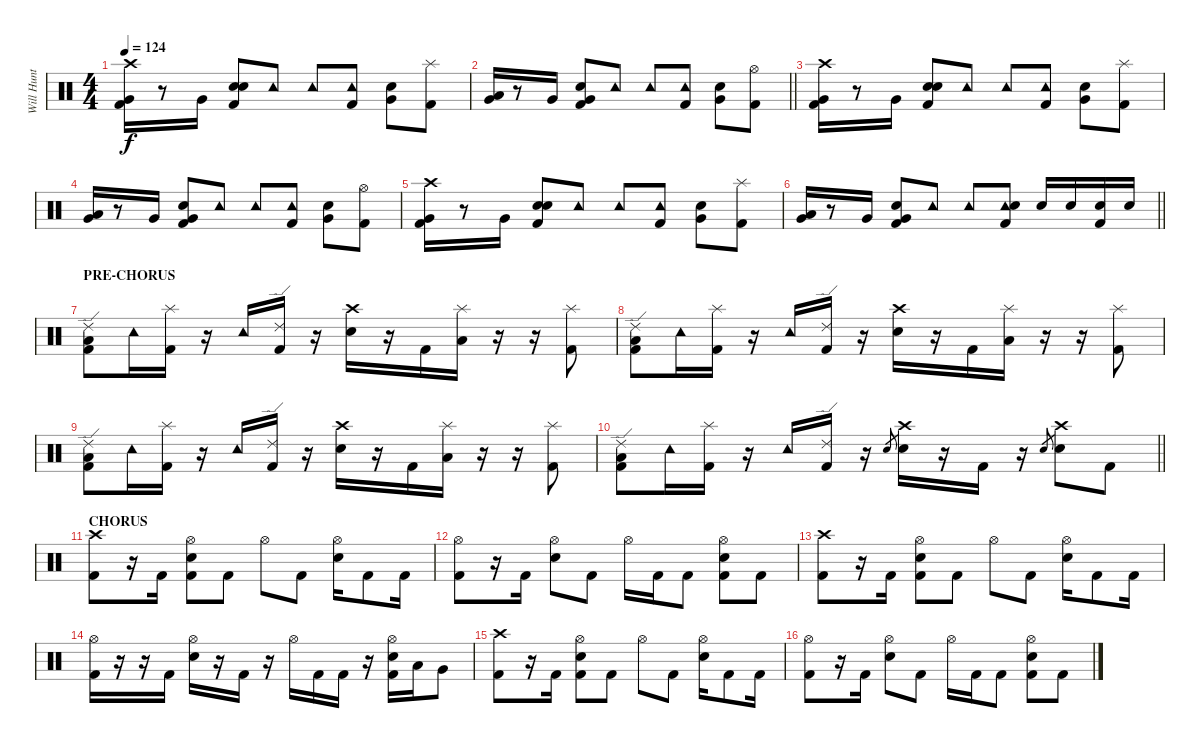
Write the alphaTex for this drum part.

\track ("Will Hunt - drums" "Will Hunt ") {instrument percussion}
\staff {score}
\articulation defaults
\ts (4 4)
\tempo 124
\clef neutral
\ks c
("Crash high (hit)" "Very Low Tom (hit)" "Kick (hit) 2").16{dy f} r.8 "Very Low Tom (hit)".16 ("Electric Snare (hit)" "Snare (hit) 2" "Kick (hit) 2").8 "Tambourine (hit)".8 "Tambourine (hit)".8 ("Tambourine (hit)" "Kick (hit) 2").8 ("Very Low Tom (hit)" "Snare (hit) 2").8 ("Splash (hit)" "Kick (hit) 2").8 |
\barLineRight lightlight
("Low Floor Tom (hit)" "Very Low Tom (hit)").16 r.8 "Very Low Tom (hit)".16 ("Very Low Tom (hit)" "Snare (hit) 2" "Kick (hit) 2").8 "Tambourine (hit)".8 "Tambourine (hit)".8 ("Tambourine (hit)" "Kick (hit) 2").8 ("Very Low Tom (hit)" "Snare (hit) 2").8 ("Hi-Hat (open)" "Kick (hit) 2").8 |
("Crash high (hit)" "Very Low Tom (hit)" "Kick (hit) 2").16 r.8 "Very Low Tom (hit)".16 ("Electric Snare (hit)" "Snare (hit) 2" "Kick (hit) 2").8 "Tambourine (hit)".8 "Tambourine (hit)".8 ("Tambourine (hit)" "Kick (hit) 2").8 ("Very Low Tom (hit)" "Snare (hit) 2").8 ("Splash (hit)" "Kick (hit) 2").8 |
("Low Floor Tom (hit)" "Very Low Tom (hit)").16 r.8 "Very Low Tom (hit)".16 ("Very Low Tom (hit)" "Snare (hit) 2" "Kick (hit) 2").8 "Tambourine (hit)".8 "Tambourine (hit)".8 ("Tambourine (hit)" "Kick (hit) 2").8 ("Very Low Tom (hit)" "Snare (hit) 2").8 ("Hi-Hat (open)" "Kick (hit) 2").8 |
("Crash high (hit)" "Very Low Tom (hit)" "Kick (hit) 2").16 r.8 "Very Low Tom (hit)".16 ("Electric Snare (hit)" "Snare (hit) 2" "Kick (hit) 2").8 "Tambourine (hit)".8 "Tambourine (hit)".8 ("Tambourine (hit)" "Kick (hit) 2").8 ("Very Low Tom (hit)" "Snare (hit) 2").8 ("Splash (hit)" "Kick (hit) 2").8 |
\barLineRight lightlight
("Low Floor Tom (hit)" "Very Low Tom (hit)").16 r.8 "Very Low Tom (hit)".16 ("Very Low Tom (hit)" "Snare (hit) 2" "Kick (hit) 2").8 "Tambourine (hit)".8 "Tambourine (hit)".8 ("Tambourine (hit)" "Snare (hit) 2" "Kick (hit) 2").8 "Snare (hit) 2".16 "Snare (hit) 2".16 ("Snare (hit) 2" "Kick (hit) 2").16 "Snare (hit) 2".16 |
\section ("" "PRE-CHORUS")
("Ride (edge) 2" "Low Tom (hit)" "Kick (hit) 2").8 "Tambourine (hit)".16 ("Splash (hit)" "Kick (hit) 2").16 r.16 "Tambourine (hit)".16 ("Ride (edge) 2" "Kick (hit) 2").16 r.16 ("Crash high (hit)" "Snare (hit) 2").16 r.16 "Kick (hit) 2".16 ("Splash (hit)" "Low Tom (hit)").16 r.16 r.16 ("Splash (hit)" "Kick (hit) 2").8 |
("Ride (edge) 2" "Low Tom (hit)" "Kick (hit) 2").8 "Tambourine (hit)".16 ("Splash (hit)" "Kick (hit) 2").16 r.16 "Tambourine (hit)".16 ("Ride (edge) 2" "Kick (hit) 2").16 r.16 ("Crash high (hit)" "Snare (hit) 2").16 r.16 "Kick (hit) 2".16 ("Splash (hit)" "Low Tom (hit)").16 r.16 r.16 ("Splash (hit)" "Kick (hit) 2").8 |
("Ride (edge) 2" "Low Tom (hit)" "Kick (hit) 2").8 "Tambourine (hit)".16 ("Splash (hit)" "Kick (hit) 2").16 r.16 "Tambourine (hit)".16 ("Ride (edge) 2" "Kick (hit) 2").16 r.16 ("Crash high (hit)" "Snare (hit) 2").16 r.16 "Kick (hit) 2".16 ("Splash (hit)" "Low Tom (hit)").16 r.16 r.16 ("Splash (hit)" "Kick (hit) 2").8 |
\barLineRight lightlight
("Ride (edge) 2" "Low Tom (hit)" "Kick (hit) 2").8 "Tambourine (hit)".16 ("Splash (hit)" "Kick (hit) 2").16 r.16 "Tambourine (hit)".16 ("Ride (edge) 2" "Kick (hit) 2").16 r.16 "Snare (hit) 2".8{gr} ("Crash high (hit)" "Snare (hit) 2").16 r.16 "Kick (hit) 2".16 r.16 "Snare (hit) 2".8{gr} ("Crash high (hit)" "Snare (hit) 2").8 "Kick (hit) 2".8 |
\section ("" "CHORUS")
("Crash high (hit)" "Kick (hit) 2").8 r.16 "Kick (hit) 2".16 ("Hi-Hat (open)" "Snare (hit) 2" "Kick (hit) 2").8 "Kick (hit) 2".8 "Hi-Hat (open)".8 "Kick (hit) 2".8 ("Hi-Hat (open)" "Snare (hit) 2").16 "Kick (hit) 2".8 "Kick (hit) 2".16 |
("Hi-Hat (open)" "Kick (hit) 2").8 r.16 "Kick (hit) 2".16 ("Hi-Hat (open)" "Snare (hit) 2").8 "Kick (hit) 2".8 "Hi-Hat (open)".16 "Kick (hit) 2".16 "Kick (hit) 2".8 ("Hi-Hat (open)" "Snare (hit) 2" "Kick (hit) 2").8 "Kick (hit) 2".8 |
("Crash high (hit)" "Kick (hit) 2").8 r.16 "Kick (hit) 2".16 ("Hi-Hat (open)" "Snare (hit) 2" "Kick (hit) 2").8 "Kick (hit) 2".8 "Hi-Hat (open)".8 "Kick (hit) 2".8 ("Hi-Hat (open)" "Snare (hit) 2").16 "Kick (hit) 2".8 "Kick (hit) 2".16 |
("Hi-Hat (open)" "Kick (hit) 2").16 r.16 r.16 "Kick (hit) 2".16 ("Hi-Hat (open)" "Snare (hit) 2").16 r.16 "Kick (hit) 2".16 r.16 "Hi-Hat (open)".16 "Kick (hit) 2".16 "Kick (hit) 2".16 r.16 ("Hi-Hat (open)" "Snare (hit) 2" "Kick (hit) 2").16 "Low Tom (hit)".16 "Very Low Tom (hit)".8 |
("Crash high (hit)" "Kick (hit) 2").8 r.16 "Kick (hit) 2".16 ("Hi-Hat (open)" "Snare (hit) 2" "Kick (hit) 2").8 "Kick (hit) 2".8 "Hi-Hat (open)".8 "Kick (hit) 2".8 ("Hi-Hat (open)" "Snare (hit) 2").16 "Kick (hit) 2".8 "Kick (hit) 2".16 |
("Hi-Hat (open)" "Kick (hit) 2").8 r.16 "Kick (hit) 2".16 ("Hi-Hat (open)" "Snare (hit) 2").8 "Kick (hit) 2".8 "Hi-Hat (open)".16 "Kick (hit) 2".16 "Kick (hit) 2".8 ("Hi-Hat (open)" "Snare (hit) 2" "Kick (hit) 2").8 "Kick (hit) 2".8
